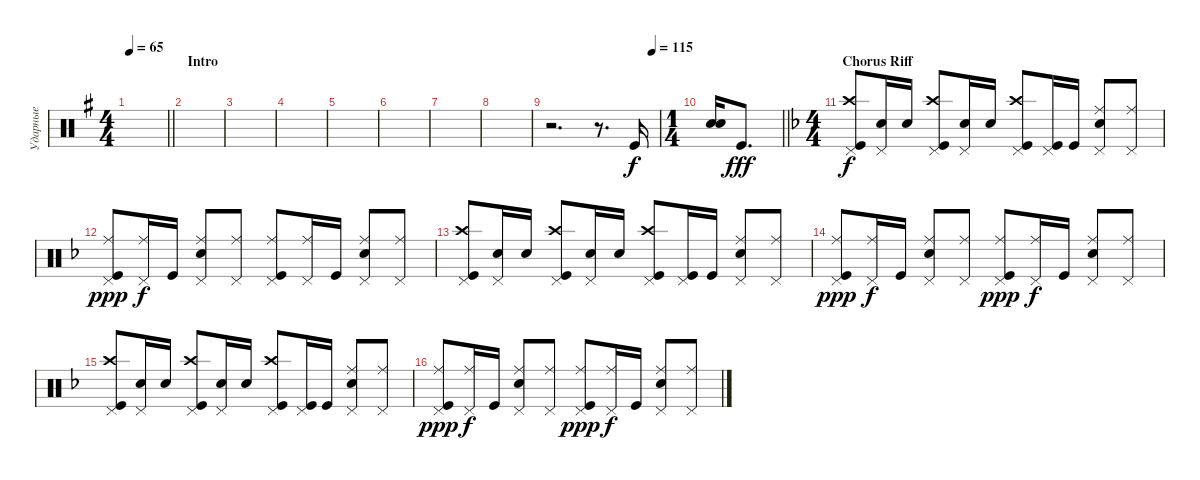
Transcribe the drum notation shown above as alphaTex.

\track ("Ударные" "Ударные") {instrument percussion}
\staff {score}
\articulation defaults
\ts (4 4)
\tempo 65
\clef neutral
\barLineRight lightlight
\ks eminor
|
\section ("" "Intro")
|
|
|
|
|
|
|
\tempo (115 0.9375)
r.2{d} r.8{d} "Kick (hit)".16 |
\ts (1 4)
\barLineRight lightlight
("Snare (hit) 2" "Snare (hit) 2").16{bd 240} "Kick (hit)".8{d dy fff} |
\ts (4 4)
\section ("" "Chorus Riff")
\ks dminor
("Kick (hit)" "Crash high (hit)" "Pedal Hi-Hat (hit)").8{dy f} ("Snare (hit) 2" "Pedal Hi-Hat (hit)").16 "Snare (hit) 2".16 ("Kick (hit)" "Crash high (hit)" "Pedal Hi-Hat (hit)").8 ("Snare (hit) 2" "Pedal Hi-Hat (hit)").16 "Snare (hit) 2".16 ("Kick (hit)" "Crash high (hit)" "Pedal Hi-Hat (hit)").8 ("Pedal Hi-Hat (hit)" "Kick (hit)").16 "Kick (hit)".16 ("Snare (hit) 2" "Pedal Hi-Hat (hit)" "Ride (middle)").8 ("Pedal Hi-Hat (hit)" "Ride (middle)").8 |
("Kick (hit)" "Pedal Hi-Hat (hit)" "Ride (middle)").8{dy ppp} ("Ride (middle)" "Pedal Hi-Hat (hit)").16{dy f} "Kick (hit)".16 ("Pedal Hi-Hat (hit)" "Snare (hit) 2" "Ride (middle)").8 ("Ride (middle)" "Pedal Hi-Hat (hit)").8 ("Pedal Hi-Hat (hit)" "Kick (hit)" "Ride (middle)").8 ("Ride (middle)" "Pedal Hi-Hat (hit)").16 "Kick (hit)".16 ("Pedal Hi-Hat (hit)" "Snare (hit) 2" "Ride (middle)").8 ("Pedal Hi-Hat (hit)" "Ride (middle)").8 |
("Kick (hit)" "Crash high (hit)" "Pedal Hi-Hat (hit)").8 ("Snare (hit) 2" "Pedal Hi-Hat (hit)").16 "Snare (hit) 2".16 ("Kick (hit)" "Crash high (hit)" "Pedal Hi-Hat (hit)").8 ("Snare (hit) 2" "Pedal Hi-Hat (hit)").16 "Snare (hit) 2".16 ("Kick (hit)" "Crash high (hit)" "Pedal Hi-Hat (hit)").8 ("Pedal Hi-Hat (hit)" "Kick (hit)").16 "Kick (hit)".16 ("Snare (hit) 2" "Pedal Hi-Hat (hit)" "Ride (middle)").8 ("Pedal Hi-Hat (hit)" "Ride (middle)").8 |
("Kick (hit)" "Pedal Hi-Hat (hit)" "Ride (middle)").8{dy ppp} ("Ride (middle)" "Pedal Hi-Hat (hit)").16{dy f} "Kick (hit)".16 ("Pedal Hi-Hat (hit)" "Snare (hit) 2" "Ride (middle)").8 ("Ride (middle)" "Pedal Hi-Hat (hit)").8 ("Kick (hit)" "Pedal Hi-Hat (hit)" "Ride (middle)").8{dy ppp} ("Ride (middle)" "Pedal Hi-Hat (hit)").16{dy f} "Kick (hit)".16 ("Pedal Hi-Hat (hit)" "Snare (hit) 2" "Ride (middle)").8 ("Ride (middle)" "Pedal Hi-Hat (hit)").8 |
("Kick (hit)" "Crash high (hit)" "Pedal Hi-Hat (hit)").8 ("Snare (hit) 2" "Pedal Hi-Hat (hit)").16 "Snare (hit) 2".16 ("Kick (hit)" "Crash high (hit)" "Pedal Hi-Hat (hit)").8 ("Snare (hit) 2" "Pedal Hi-Hat (hit)").16 "Snare (hit) 2".16 ("Kick (hit)" "Crash high (hit)" "Pedal Hi-Hat (hit)").8 ("Pedal Hi-Hat (hit)" "Kick (hit)").16 "Kick (hit)".16 ("Snare (hit) 2" "Pedal Hi-Hat (hit)" "Ride (middle)").8 ("Pedal Hi-Hat (hit)" "Ride (middle)").8 |
("Kick (hit)" "Pedal Hi-Hat (hit)" "Ride (middle)").8{dy ppp} ("Ride (middle)" "Pedal Hi-Hat (hit)").16{dy f} "Kick (hit)".16 ("Pedal Hi-Hat (hit)" "Snare (hit) 2" "Ride (middle)").8 ("Ride (middle)" "Pedal Hi-Hat (hit)").8 ("Kick (hit)" "Pedal Hi-Hat (hit)" "Ride (middle)").8{dy ppp} ("Ride (middle)" "Pedal Hi-Hat (hit)").16{dy f} "Kick (hit)".16 ("Pedal Hi-Hat (hit)" "Snare (hit) 2" "Ride (middle)").8 ("Ride (middle)" "Pedal Hi-Hat (hit)").8
